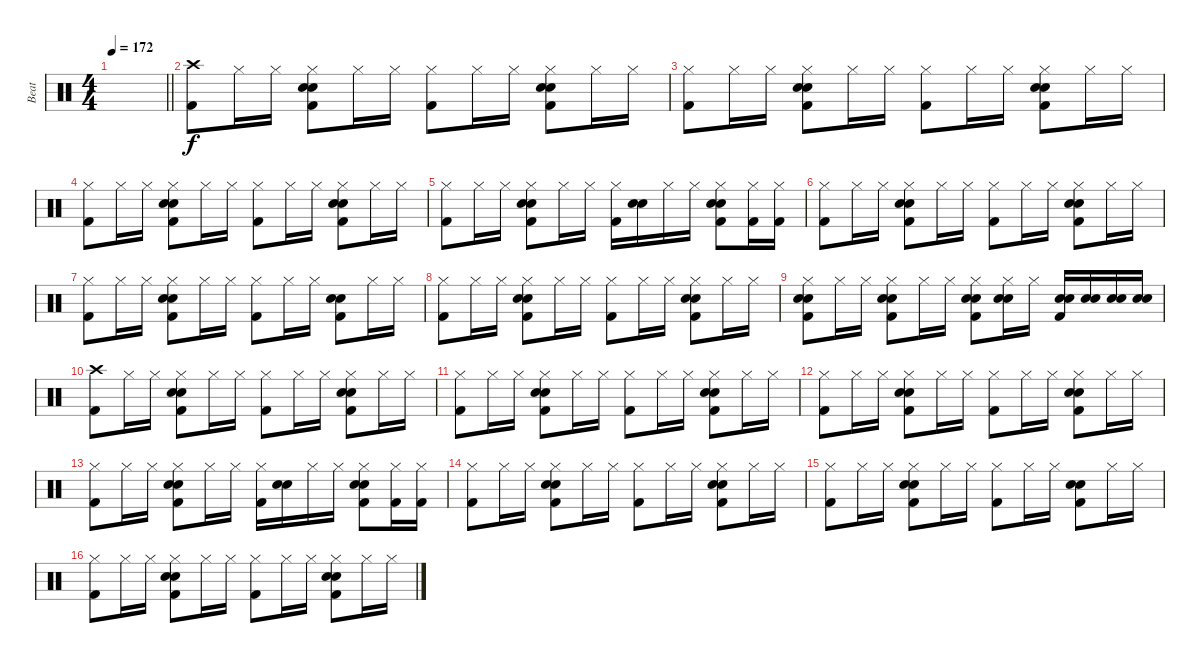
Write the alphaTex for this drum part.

\track ("Beat" "Beat") {instrument percussion}
\staff {score}
\articulation defaults
\ts (4 4)
\tempo 172
\clef neutral
\barLineRight lightlight
\ks c
|
\section ("" " ")
("Kick (hit) 2" "Crash high (hit)").8 "Hi-Hat (closed)".16 "Hi-Hat (closed)".16 ("Kick (hit) 2" "Hi-Hat (closed)" "Snare (hit) 2" "Hand Clap (hit)").8 "Hi-Hat (closed)".16 "Hi-Hat (closed)".16 ("Kick (hit) 2" "Hi-Hat (closed)").8 "Hi-Hat (closed)".16 "Hi-Hat (closed)".16 ("Kick (hit) 2" "Hi-Hat (closed)" "Snare (hit) 2" "Hand Clap (hit)").8 "Hi-Hat (closed)".16 "Hi-Hat (closed)".16 |
("Kick (hit) 2" "Hi-Hat (closed)").8 "Hi-Hat (closed)".16 "Hi-Hat (closed)".16 ("Kick (hit) 2" "Hi-Hat (closed)" "Snare (hit) 2" "Hand Clap (hit)").8 "Hi-Hat (closed)".16 "Hi-Hat (closed)".16 ("Kick (hit) 2" "Hi-Hat (closed)").8 "Hi-Hat (closed)".16 "Hi-Hat (closed)".16 ("Kick (hit) 2" "Hi-Hat (closed)" "Snare (hit) 2" "Hand Clap (hit)").8 "Hi-Hat (closed)".16 "Hi-Hat (closed)".16 |
("Kick (hit) 2" "Hi-Hat (closed)").8 "Hi-Hat (closed)".16 "Hi-Hat (closed)".16 ("Kick (hit) 2" "Hi-Hat (closed)" "Snare (hit) 2" "Hand Clap (hit)").8 "Hi-Hat (closed)".16 "Hi-Hat (closed)".16 ("Kick (hit) 2" "Hi-Hat (closed)").8 "Hi-Hat (closed)".16 "Hi-Hat (closed)".16 ("Kick (hit) 2" "Hi-Hat (closed)" "Snare (hit) 2" "Hand Clap (hit)").8 "Hi-Hat (closed)".16 "Hi-Hat (closed)".16 |
("Kick (hit) 2" "Hi-Hat (closed)").8 "Hi-Hat (closed)".16 "Hi-Hat (closed)".16 ("Kick (hit) 2" "Hi-Hat (closed)" "Snare (hit) 2" "Hand Clap (hit)").8 "Hi-Hat (closed)".16 "Hi-Hat (closed)".16 ("Kick (hit) 2" "Hi-Hat (closed)").16 ("Snare (hit) 2" "Hand Clap (hit)").16 "Hi-Hat (closed)".16 "Hi-Hat (closed)".16 ("Kick (hit) 2" "Hi-Hat (closed)" "Snare (hit) 2" "Hand Clap (hit)").8 ("Kick (hit) 2" "Hi-Hat (closed)").16 ("Kick (hit) 2" "Hi-Hat (closed)").16 |
("Kick (hit) 2" "Hi-Hat (closed)").8 "Hi-Hat (closed)".16 "Hi-Hat (closed)".16 ("Kick (hit) 2" "Hi-Hat (closed)" "Snare (hit) 2" "Hand Clap (hit)").8 "Hi-Hat (closed)".16 "Hi-Hat (closed)".16 ("Kick (hit) 2" "Hi-Hat (closed)").8 "Hi-Hat (closed)".16 "Hi-Hat (closed)".16 ("Kick (hit) 2" "Hi-Hat (closed)" "Snare (hit) 2" "Hand Clap (hit)").8 "Hi-Hat (closed)".16 "Hi-Hat (closed)".16 |
("Kick (hit) 2" "Hi-Hat (closed)").8 "Hi-Hat (closed)".16 "Hi-Hat (closed)".16 ("Kick (hit) 2" "Hi-Hat (closed)" "Snare (hit) 2" "Hand Clap (hit)").8 "Hi-Hat (closed)".16 "Hi-Hat (closed)".16 ("Kick (hit) 2" "Hi-Hat (closed)").8 "Hi-Hat (closed)".16 "Hi-Hat (closed)".16 ("Kick (hit) 2" "Snare (hit) 2" "Hand Clap (hit)").8 "Hi-Hat (closed)".16 "Hi-Hat (closed)".16 |
("Kick (hit) 2" "Hi-Hat (closed)").8 "Hi-Hat (closed)".16 "Hi-Hat (closed)".16 ("Kick (hit) 2" "Hi-Hat (closed)" "Snare (hit) 2" "Hand Clap (hit)").8 "Hi-Hat (closed)".16 "Hi-Hat (closed)".16 ("Kick (hit) 2" "Hi-Hat (closed)").8 "Hi-Hat (closed)".16 "Hi-Hat (closed)".16 ("Kick (hit) 2" "Hi-Hat (closed)" "Snare (hit) 2" "Hand Clap (hit)").8 "Hi-Hat (closed)".16 "Hi-Hat (closed)".16 |
("Kick (hit) 2" "Hi-Hat (closed)" "Snare (hit) 2" "Hand Clap (hit)").8 "Hi-Hat (closed)".16 "Hi-Hat (closed)".16 ("Kick (hit) 2" "Hi-Hat (closed)" "Snare (hit) 2" "Hand Clap (hit)").8 "Hi-Hat (closed)".16 "Hi-Hat (closed)".16 ("Kick (hit) 2" "Hi-Hat (closed)" "Snare (hit) 2" "Hand Clap (hit)").8 ("Hi-Hat (closed)" "Snare (hit) 2" "Hand Clap (hit)").16 "Hi-Hat (closed)".16 ("Kick (hit) 2" "Snare (hit) 2" "Hand Clap (hit)").16 ("Snare (hit) 2" "Hand Clap (hit)").16 ("Snare (hit) 2" "Hand Clap (hit)").16 ("Snare (hit) 2" "Hand Clap (hit)").16 |
("Kick (hit) 2" "Crash high (hit)").8 "Hi-Hat (closed)".16 "Hi-Hat (closed)".16 ("Kick (hit) 2" "Hi-Hat (closed)" "Snare (hit) 2" "Hand Clap (hit)").8 "Hi-Hat (closed)".16 "Hi-Hat (closed)".16 ("Kick (hit) 2" "Hi-Hat (closed)").8 "Hi-Hat (closed)".16 "Hi-Hat (closed)".16 ("Kick (hit) 2" "Hi-Hat (closed)" "Snare (hit) 2" "Hand Clap (hit)").8 "Hi-Hat (closed)".16 "Hi-Hat (closed)".16 |
("Kick (hit) 2" "Hi-Hat (closed)").8 "Hi-Hat (closed)".16 "Hi-Hat (closed)".16 ("Kick (hit) 2" "Hi-Hat (closed)" "Snare (hit) 2" "Hand Clap (hit)").8 "Hi-Hat (closed)".16 "Hi-Hat (closed)".16 ("Kick (hit) 2" "Hi-Hat (closed)").8 "Hi-Hat (closed)".16 "Hi-Hat (closed)".16 ("Kick (hit) 2" "Hi-Hat (closed)" "Snare (hit) 2" "Hand Clap (hit)").8 "Hi-Hat (closed)".16 "Hi-Hat (closed)".16 |
("Kick (hit) 2" "Hi-Hat (closed)").8 "Hi-Hat (closed)".16 "Hi-Hat (closed)".16 ("Kick (hit) 2" "Hi-Hat (closed)" "Snare (hit) 2" "Hand Clap (hit)").8 "Hi-Hat (closed)".16 "Hi-Hat (closed)".16 ("Kick (hit) 2" "Hi-Hat (closed)").8 "Hi-Hat (closed)".16 "Hi-Hat (closed)".16 ("Kick (hit) 2" "Hi-Hat (closed)" "Snare (hit) 2" "Hand Clap (hit)").8 "Hi-Hat (closed)".16 "Hi-Hat (closed)".16 |
("Kick (hit) 2" "Hi-Hat (closed)").8 "Hi-Hat (closed)".16 "Hi-Hat (closed)".16 ("Kick (hit) 2" "Hi-Hat (closed)" "Snare (hit) 2" "Hand Clap (hit)").8 "Hi-Hat (closed)".16 "Hi-Hat (closed)".16 ("Kick (hit) 2" "Hi-Hat (closed)").16 ("Snare (hit) 2" "Hand Clap (hit)").16 "Hi-Hat (closed)".16 "Hi-Hat (closed)".16 ("Kick (hit) 2" "Hi-Hat (closed)" "Snare (hit) 2" "Hand Clap (hit)").8 ("Kick (hit) 2" "Hi-Hat (closed)").16 ("Kick (hit) 2" "Hi-Hat (closed)").16 |
("Kick (hit) 2" "Hi-Hat (closed)").8 "Hi-Hat (closed)".16 "Hi-Hat (closed)".16 ("Kick (hit) 2" "Hi-Hat (closed)" "Snare (hit) 2" "Hand Clap (hit)").8 "Hi-Hat (closed)".16 "Hi-Hat (closed)".16 ("Kick (hit) 2" "Hi-Hat (closed)").8 "Hi-Hat (closed)".16 "Hi-Hat (closed)".16 ("Kick (hit) 2" "Hi-Hat (closed)" "Snare (hit) 2" "Hand Clap (hit)").8 "Hi-Hat (closed)".16 "Hi-Hat (closed)".16 |
("Kick (hit) 2" "Hi-Hat (closed)").8 "Hi-Hat (closed)".16 "Hi-Hat (closed)".16 ("Kick (hit) 2" "Hi-Hat (closed)" "Snare (hit) 2" "Hand Clap (hit)").8 "Hi-Hat (closed)".16 "Hi-Hat (closed)".16 ("Kick (hit) 2" "Hi-Hat (closed)").8 "Hi-Hat (closed)".16 "Hi-Hat (closed)".16 ("Kick (hit) 2" "Snare (hit) 2" "Hand Clap (hit)").8 "Hi-Hat (closed)".16 "Hi-Hat (closed)".16 |
("Kick (hit) 2" "Hi-Hat (closed)").8 "Hi-Hat (closed)".16 "Hi-Hat (closed)".16 ("Kick (hit) 2" "Hi-Hat (closed)" "Snare (hit) 2" "Hand Clap (hit)").8 "Hi-Hat (closed)".16 "Hi-Hat (closed)".16 ("Kick (hit) 2" "Hi-Hat (closed)").8 "Hi-Hat (closed)".16 "Hi-Hat (closed)".16 ("Kick (hit) 2" "Hi-Hat (closed)" "Snare (hit) 2" "Hand Clap (hit)").8 "Hi-Hat (closed)".16 "Hi-Hat (closed)".16
